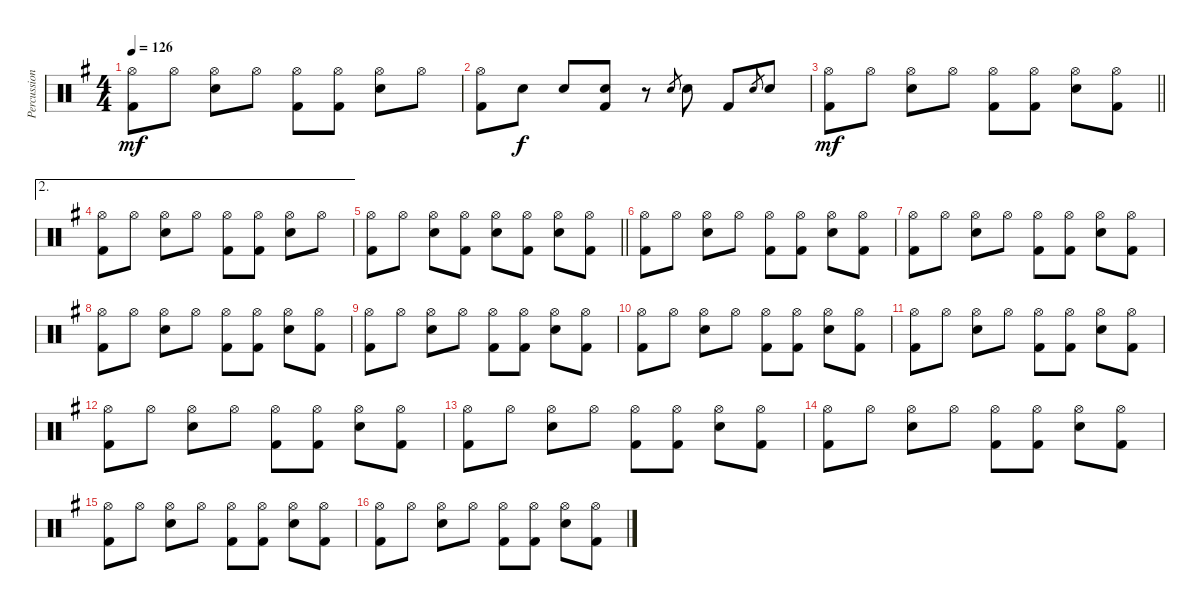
\track ("Percussion" "Percussion") {instrument percussion}
\staff {score}
\articulation defaults
\ts (4 4)
\tempo 126
\clef neutral
\ks g
("Hi-Hat (open)" "Kick (hit) 2").8{dy mf} "Hi-Hat (open)".8 ("Hi-Hat (open)" "Snare (hit) 2").8 "Hi-Hat (open)".8 ("Hi-Hat (open)" "Kick (hit) 2").8 ("Hi-Hat (open)" "Kick (hit) 2").8 ("Hi-Hat (open)" "Snare (hit) 2").8 "Hi-Hat (open)".8 |
("Hi-Hat (open)" "Kick (hit) 2").8 "Snare (hit) 2".8{dy f} "Snare (hit) 2".8 ("Snare (hit) 2" "Kick (hit) 2").8 r.8 "Snare (hit) 2".8{gr} "Snare (hit) 2".8 "Kick (hit) 2".8 "Snare (hit) 2".8{gr} "Snare (hit) 2".8 |
\barLineRight lightlight
("Hi-Hat (open)" "Kick (hit) 2").8{dy mf} "Hi-Hat (open)".8 ("Hi-Hat (open)" "Snare (hit) 2").8 "Hi-Hat (open)".8 ("Hi-Hat (open)" "Kick (hit) 2").8 ("Hi-Hat (open)" "Kick (hit) 2").8 ("Hi-Hat (open)" "Snare (hit) 2").8 ("Hi-Hat (open)" "Kick (hit) 2").8 |
\ae 2
("Hi-Hat (open)" "Kick (hit) 2").8 "Hi-Hat (open)".8 ("Hi-Hat (open)" "Snare (hit) 2").8 "Hi-Hat (open)".8 ("Hi-Hat (open)" "Kick (hit) 2").8 ("Hi-Hat (open)" "Kick (hit) 2").8 ("Hi-Hat (open)" "Snare (hit) 2").8 "Hi-Hat (open)".8 |
\barLineRight lightlight
("Hi-Hat (open)" "Kick (hit) 2").8 "Hi-Hat (open)".8 ("Hi-Hat (open)" "Snare (hit) 2").8 ("Hi-Hat (open)" "Kick (hit) 2").8 ("Hi-Hat (open)" "Snare (hit) 2").8 ("Hi-Hat (open)" "Kick (hit) 2").8 ("Hi-Hat (open)" "Snare (hit) 2").8 ("Hi-Hat (open)" "Kick (hit) 2").8 |
("Hi-Hat (open)" "Kick (hit) 2").8 "Hi-Hat (open)".8 ("Hi-Hat (open)" "Snare (hit) 2").8 "Hi-Hat (open)".8 ("Hi-Hat (open)" "Kick (hit) 2").8 ("Hi-Hat (open)" "Kick (hit) 2").8 ("Hi-Hat (open)" "Snare (hit) 2").8 ("Hi-Hat (open)" "Kick (hit) 2").8 |
("Hi-Hat (open)" "Kick (hit) 2").8 "Hi-Hat (open)".8 ("Hi-Hat (open)" "Snare (hit) 2").8 "Hi-Hat (open)".8 ("Hi-Hat (open)" "Kick (hit) 2").8 ("Hi-Hat (open)" "Kick (hit) 2").8 ("Hi-Hat (open)" "Snare (hit) 2").8 ("Hi-Hat (open)" "Kick (hit) 2").8 |
("Hi-Hat (open)" "Kick (hit) 2").8 "Hi-Hat (open)".8 ("Hi-Hat (open)" "Snare (hit) 2").8 "Hi-Hat (open)".8 ("Hi-Hat (open)" "Kick (hit) 2").8 ("Hi-Hat (open)" "Kick (hit) 2").8 ("Hi-Hat (open)" "Snare (hit) 2").8 ("Hi-Hat (open)" "Kick (hit) 2").8 |
("Hi-Hat (open)" "Kick (hit) 2").8 "Hi-Hat (open)".8 ("Hi-Hat (open)" "Snare (hit) 2").8 "Hi-Hat (open)".8 ("Hi-Hat (open)" "Kick (hit) 2").8 ("Hi-Hat (open)" "Kick (hit) 2").8 ("Hi-Hat (open)" "Snare (hit) 2").8 ("Hi-Hat (open)" "Kick (hit) 2").8 |
("Hi-Hat (open)" "Kick (hit) 2").8 "Hi-Hat (open)".8 ("Hi-Hat (open)" "Snare (hit) 2").8 "Hi-Hat (open)".8 ("Hi-Hat (open)" "Kick (hit) 2").8 ("Hi-Hat (open)" "Kick (hit) 2").8 ("Hi-Hat (open)" "Snare (hit) 2").8 ("Hi-Hat (open)" "Kick (hit) 2").8 |
("Hi-Hat (open)" "Kick (hit) 2").8 "Hi-Hat (open)".8 ("Hi-Hat (open)" "Snare (hit) 2").8 "Hi-Hat (open)".8 ("Hi-Hat (open)" "Kick (hit) 2").8 ("Hi-Hat (open)" "Kick (hit) 2").8 ("Hi-Hat (open)" "Snare (hit) 2").8 ("Hi-Hat (open)" "Kick (hit) 2").8 |
("Hi-Hat (open)" "Kick (hit) 2").8 "Hi-Hat (open)".8 ("Hi-Hat (open)" "Snare (hit) 2").8 "Hi-Hat (open)".8 ("Hi-Hat (open)" "Kick (hit) 2").8 ("Hi-Hat (open)" "Kick (hit) 2").8 ("Hi-Hat (open)" "Snare (hit) 2").8 ("Hi-Hat (open)" "Kick (hit) 2").8 |
("Hi-Hat (open)" "Kick (hit) 2").8 "Hi-Hat (open)".8 ("Hi-Hat (open)" "Snare (hit) 2").8 "Hi-Hat (open)".8 ("Hi-Hat (open)" "Kick (hit) 2").8 ("Hi-Hat (open)" "Kick (hit) 2").8 ("Hi-Hat (open)" "Snare (hit) 2").8 ("Hi-Hat (open)" "Kick (hit) 2").8 |
("Hi-Hat (open)" "Kick (hit) 2").8 "Hi-Hat (open)".8 ("Hi-Hat (open)" "Snare (hit) 2").8 "Hi-Hat (open)".8 ("Hi-Hat (open)" "Kick (hit) 2").8 ("Hi-Hat (open)" "Kick (hit) 2").8 ("Hi-Hat (open)" "Snare (hit) 2").8 ("Hi-Hat (open)" "Kick (hit) 2").8 |
("Hi-Hat (open)" "Kick (hit) 2").8 "Hi-Hat (open)".8 ("Hi-Hat (open)" "Snare (hit) 2").8 "Hi-Hat (open)".8 ("Hi-Hat (open)" "Kick (hit) 2").8 ("Hi-Hat (open)" "Kick (hit) 2").8 ("Hi-Hat (open)" "Snare (hit) 2").8 ("Hi-Hat (open)" "Kick (hit) 2").8 |
("Hi-Hat (open)" "Kick (hit) 2").8 "Hi-Hat (open)".8 ("Hi-Hat (open)" "Snare (hit) 2").8 "Hi-Hat (open)".8 ("Hi-Hat (open)" "Kick (hit) 2").8 ("Hi-Hat (open)" "Kick (hit) 2").8 ("Hi-Hat (open)" "Snare (hit) 2").8 ("Hi-Hat (open)" "Kick (hit) 2").8
